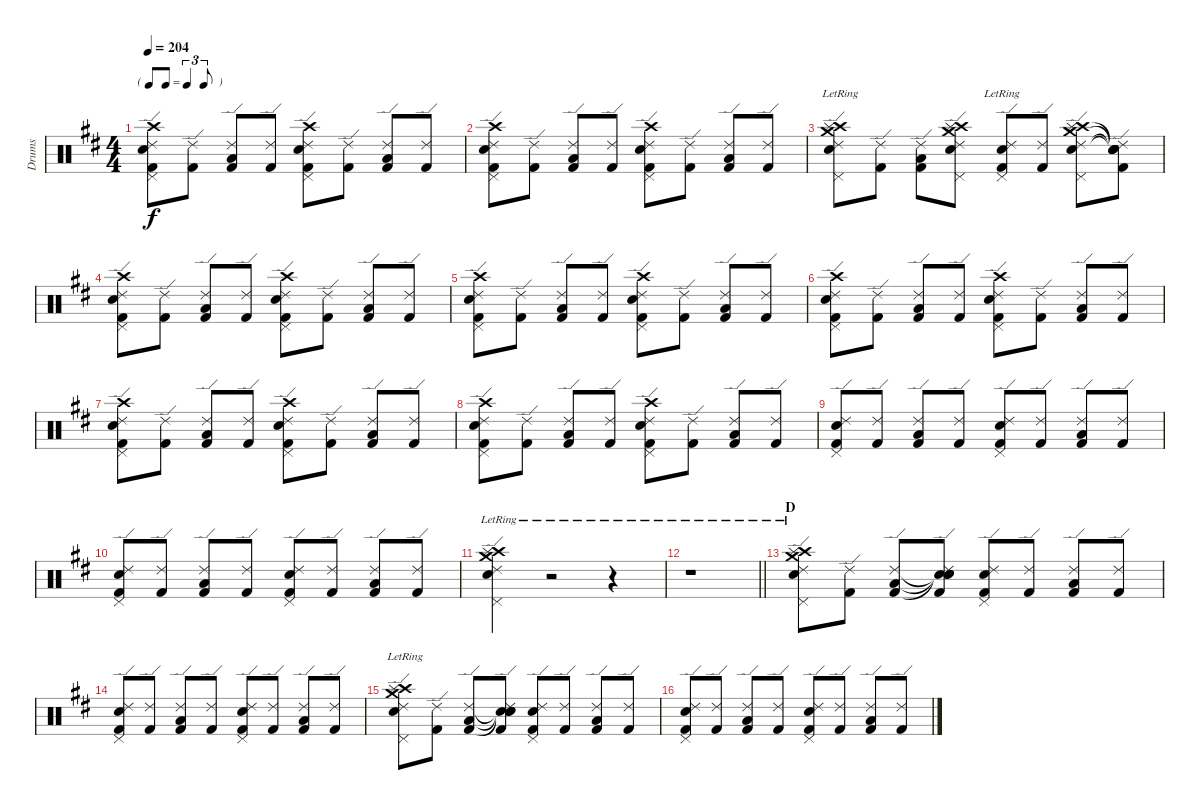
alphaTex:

\track ("Drums" "Drums") {instrument percussion}
\staff {score}
\articulation defaults
\ts (4 4)
\tf triplet8th
\tempo 204
\clef neutral
\ks d
("Crash high (hit)" "Kick (hit) 2" "Snare (hit) 2" "Ride (edge) 2" "Pedal Hi-Hat (hit)").8{dy f} ("Kick (hit) 2" "Ride (edge) 2").8 ("Low Floor Tom (hit)" "Ride (edge) 2" "Kick (hit) 2").8 ("Kick (hit) 2" "Ride (edge) 2").8 ("Crash high (hit)" "Kick (hit) 2" "Snare (hit) 2" "Ride (edge) 2" "Pedal Hi-Hat (hit)").8 ("Kick (hit) 2" "Ride (edge) 2").8 ("Low Floor Tom (hit)" "Ride (edge) 2" "Kick (hit) 2").8 ("Kick (hit) 2" "Ride (edge) 2").8 |
("Crash high (hit)" "Kick (hit) 2" "Snare (hit) 2" "Ride (edge) 2" "Pedal Hi-Hat (hit)").8 ("Kick (hit) 2" "Ride (edge) 2").8 ("Low Floor Tom (hit)" "Ride (edge) 2" "Kick (hit) 2").8 ("Kick (hit) 2" "Ride (edge) 2").8 ("Crash high (hit)" "Kick (hit) 2" "Snare (hit) 2" "Ride (edge) 2" "Pedal Hi-Hat (hit)").8 ("Kick (hit) 2" "Ride (edge) 2").8 ("Low Floor Tom (hit)" "Ride (edge) 2" "Kick (hit) 2").8 ("Kick (hit) 2" "Ride (edge) 2").8 |
("Ride (edge) 2" "Crash medium (hit)" "Crash high (hit)"{lr} "Pedal Hi-Hat (hit)"{lr} "Splash (hit)"{lr} "Snare (hit) 2"{lr}).8 ("Kick (hit) 2" "Ride (edge) 2").8 ("Low Floor Tom (hit)" "Ride (edge) 2" "Kick (hit) 2").8 ("Ride (edge) 2" "Crash medium (hit)" "Crash high (hit)" "Pedal Hi-Hat (hit)" "Splash (hit)" "Snare (hit) 2").8 ("Kick (hit) 2"{lr} "Snare (hit) 2"{lr} "Ride (edge) 2"{lr} "Pedal Hi-Hat (hit)"{lr}).8 ("Kick (hit) 2" "Ride (edge) 2").8 ("Ride (edge) 2" "Crash medium (hit)" "Crash high (hit)" "Pedal Hi-Hat (hit)" "Splash (hit)" "Snare (hit) 2").8 ("Snare (hit)"{t} "Snare (hit)"{t} "Snare (hit)"{t} "Kick (hit) 2" "Ride (edge) 2" "Snare (hit)"{t}).8 |
("Crash high (hit)" "Kick (hit) 2" "Snare (hit) 2" "Ride (edge) 2" "Pedal Hi-Hat (hit)").8 ("Kick (hit) 2" "Ride (edge) 2").8 ("Low Floor Tom (hit)" "Ride (edge) 2" "Kick (hit) 2").8 ("Kick (hit) 2" "Ride (edge) 2").8 ("Crash high (hit)" "Kick (hit) 2" "Snare (hit) 2" "Ride (edge) 2" "Pedal Hi-Hat (hit)").8 ("Kick (hit) 2" "Ride (edge) 2").8 ("Low Floor Tom (hit)" "Ride (edge) 2" "Kick (hit) 2").8 ("Kick (hit) 2" "Ride (edge) 2").8 |
("Crash high (hit)" "Kick (hit) 2" "Snare (hit) 2" "Ride (edge) 2" "Pedal Hi-Hat (hit)").8 ("Kick (hit) 2" "Ride (edge) 2").8 ("Low Floor Tom (hit)" "Ride (edge) 2" "Kick (hit) 2").8 ("Kick (hit) 2" "Ride (edge) 2").8 ("Crash high (hit)" "Kick (hit) 2" "Snare (hit) 2" "Ride (edge) 2" "Pedal Hi-Hat (hit)").8 ("Kick (hit) 2" "Ride (edge) 2").8 ("Low Floor Tom (hit)" "Ride (edge) 2" "Kick (hit) 2").8 ("Kick (hit) 2" "Ride (edge) 2").8 |
("Crash high (hit)" "Kick (hit) 2" "Snare (hit) 2" "Ride (edge) 2" "Pedal Hi-Hat (hit)").8 ("Kick (hit) 2" "Ride (edge) 2").8 ("Low Floor Tom (hit)" "Ride (edge) 2" "Kick (hit) 2").8 ("Kick (hit) 2" "Ride (edge) 2").8 ("Crash high (hit)" "Kick (hit) 2" "Snare (hit) 2" "Ride (edge) 2" "Pedal Hi-Hat (hit)").8 ("Kick (hit) 2" "Ride (edge) 2").8 ("Low Floor Tom (hit)" "Ride (edge) 2" "Kick (hit) 2").8 ("Kick (hit) 2" "Ride (edge) 2").8 |
("Crash high (hit)" "Kick (hit) 2" "Snare (hit) 2" "Ride (edge) 2" "Pedal Hi-Hat (hit)").8 ("Kick (hit) 2" "Ride (edge) 2").8 ("Low Floor Tom (hit)" "Ride (edge) 2" "Kick (hit) 2").8 ("Kick (hit) 2" "Ride (edge) 2").8 ("Crash high (hit)" "Kick (hit) 2" "Snare (hit) 2" "Ride (edge) 2" "Pedal Hi-Hat (hit)").8 ("Kick (hit) 2" "Ride (edge) 2").8 ("Low Floor Tom (hit)" "Ride (edge) 2" "Kick (hit) 2").8 ("Kick (hit) 2" "Ride (edge) 2").8 |
("Crash high (hit)" "Kick (hit) 2" "Snare (hit) 2" "Ride (edge) 2" "Pedal Hi-Hat (hit)").8 ("Kick (hit) 2" "Ride (edge) 2").8 ("Low Floor Tom (hit)" "Ride (edge) 2" "Kick (hit) 2").8 ("Kick (hit) 2" "Ride (edge) 2").8 ("Crash high (hit)" "Kick (hit) 2" "Snare (hit) 2" "Ride (edge) 2" "Pedal Hi-Hat (hit)").8 ("Kick (hit) 2" "Ride (edge) 2").8 ("Low Floor Tom (hit)" "Ride (edge) 2" "Kick (hit) 2").8 ("Kick (hit) 2" "Ride (edge) 2").8 |
("Kick (hit) 2" "Snare (hit) 2" "Ride (edge) 2" "Pedal Hi-Hat (hit)").8 ("Kick (hit) 2" "Ride (edge) 2").8 ("Low Floor Tom (hit)" "Ride (edge) 2" "Kick (hit) 2").8 ("Kick (hit) 2" "Ride (edge) 2").8 ("Kick (hit) 2" "Snare (hit) 2" "Ride (edge) 2" "Pedal Hi-Hat (hit)").8 ("Kick (hit) 2" "Ride (edge) 2").8 ("Low Floor Tom (hit)" "Ride (edge) 2" "Kick (hit) 2").8 ("Kick (hit) 2" "Ride (edge) 2").8 |
("Kick (hit) 2" "Snare (hit) 2" "Ride (edge) 2" "Pedal Hi-Hat (hit)").8 ("Kick (hit) 2" "Ride (edge) 2").8 ("Low Floor Tom (hit)" "Ride (edge) 2" "Kick (hit) 2").8 ("Kick (hit) 2" "Ride (edge) 2").8 ("Kick (hit) 2" "Snare (hit) 2" "Ride (edge) 2" "Pedal Hi-Hat (hit)").8 ("Kick (hit) 2" "Ride (edge) 2").8 ("Low Floor Tom (hit)" "Ride (edge) 2" "Kick (hit) 2").8 ("Kick (hit) 2" "Ride (edge) 2").8 |
("Ride (edge) 2"{lr} "Crash medium (hit)"{lr} "Crash high (hit)"{lr} "Pedal Hi-Hat (hit)"{lr} "Splash (hit)"{lr} "Snare (hit) 2"{lr}).4 r.2 r.4 |
\barLineRight lightlight
r.1 |
\section ("" "D")
("Ride (edge) 2" "Crash medium (hit)" "Crash high (hit)"{lr} "Pedal Hi-Hat (hit)"{lr} "Splash (hit)"{lr} "Snare (hit) 2"{lr}).8 ("Kick (hit) 2" "Ride (edge) 2").8 ("Low Floor Tom (hit)" "Ride (edge) 2" "Kick (hit) 2").8 ("Snare (hit)"{t} "Snare (hit)"{t} "Snare (hit)"{t} "Kick (hit) 2" "Ride (edge) 2").8 ("Kick (hit) 2" "Snare (hit) 2" "Ride (edge) 2" "Pedal Hi-Hat (hit)").8 ("Kick (hit) 2" "Ride (edge) 2").8 ("Low Floor Tom (hit)" "Ride (edge) 2" "Kick (hit) 2").8 ("Kick (hit) 2" "Ride (edge) 2").8 |
("Kick (hit) 2" "Snare (hit) 2" "Ride (edge) 2" "Pedal Hi-Hat (hit)").8 ("Kick (hit) 2" "Ride (edge) 2").8 ("Low Floor Tom (hit)" "Ride (edge) 2" "Kick (hit) 2").8 ("Kick (hit) 2" "Ride (edge) 2").8 ("Kick (hit) 2" "Snare (hit) 2" "Ride (edge) 2" "Pedal Hi-Hat (hit)").8 ("Kick (hit) 2" "Ride (edge) 2").8 ("Low Floor Tom (hit)" "Ride (edge) 2" "Kick (hit) 2").8 ("Kick (hit) 2" "Ride (edge) 2").8 |
("Ride (edge) 2" "Crash medium (hit)" "Crash high (hit)"{lr} "Pedal Hi-Hat (hit)"{lr} "Splash (hit)"{lr} "Snare (hit) 2"{lr}).8 ("Kick (hit) 2" "Ride (edge) 2").8 ("Low Floor Tom (hit)" "Ride (edge) 2" "Kick (hit) 2").8 ("Snare (hit)"{t} "Snare (hit)"{t} "Snare (hit)"{t} "Kick (hit) 2" "Ride (edge) 2").8 ("Kick (hit) 2" "Snare (hit) 2" "Ride (edge) 2" "Pedal Hi-Hat (hit)").8 ("Kick (hit) 2" "Ride (edge) 2").8 ("Low Floor Tom (hit)" "Ride (edge) 2" "Kick (hit) 2").8 ("Kick (hit) 2" "Ride (edge) 2").8 |
("Kick (hit) 2" "Snare (hit) 2" "Ride (edge) 2" "Pedal Hi-Hat (hit)").8 ("Kick (hit) 2" "Ride (edge) 2").8 ("Low Floor Tom (hit)" "Ride (edge) 2" "Kick (hit) 2").8 ("Kick (hit) 2" "Ride (edge) 2").8 ("Kick (hit) 2" "Snare (hit) 2" "Ride (edge) 2" "Pedal Hi-Hat (hit)").8 ("Kick (hit) 2" "Ride (edge) 2").8 ("Low Floor Tom (hit)" "Ride (edge) 2" "Kick (hit) 2").8 ("Kick (hit) 2" "Ride (edge) 2").8
